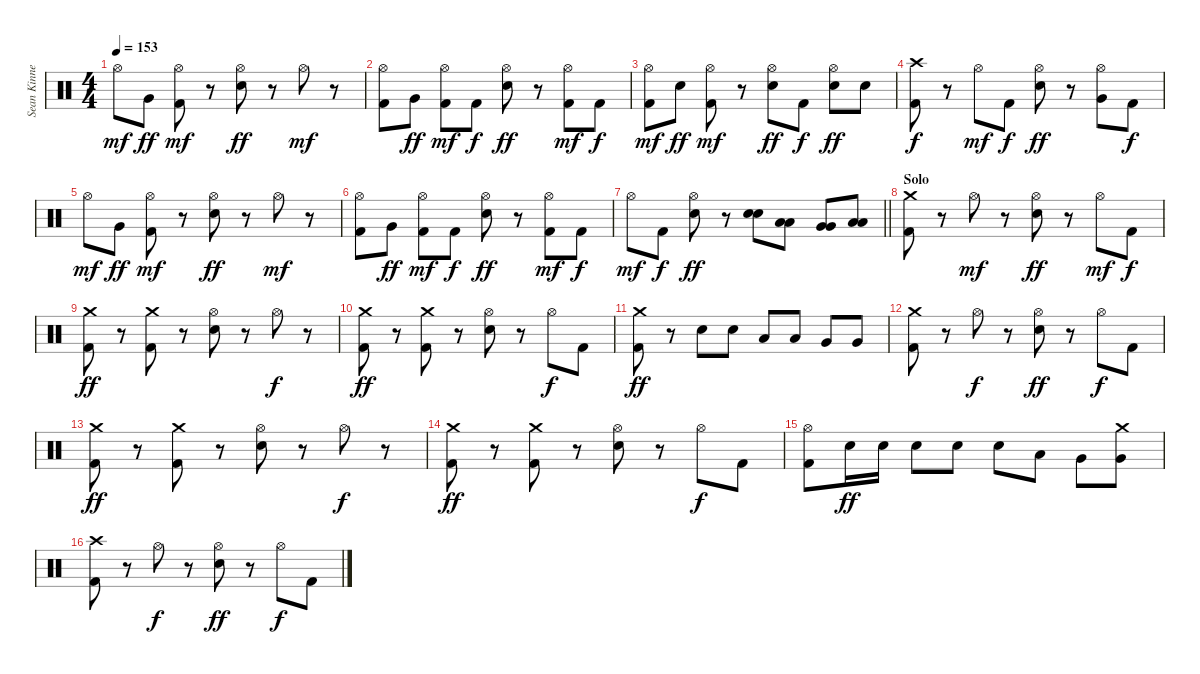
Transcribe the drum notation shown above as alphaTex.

\track ("Sean Kinney - Drums" "Sean Kinne") {instrument percussion}
\staff {score}
\articulation defaults
\ts (4 4)
\tempo 153
\clef neutral
\ks c "Hi-Hat (open)".8{dy mf} "Very Low Tom (hit)".8{dy ff}
("Hi-Hat (open)" "Kick (hit) 2").8{dy mf} r.8 ("Hi-Hat (open)" "Snare (hit) 2").8{dy ff} r.8 "Hi-Hat (open)".8{dy mf} r.8 |
("Hi-Hat (open)" "Kick (hit) 2").8 "Very Low Tom (hit)".8{dy ff} ("Hi-Hat (open)" "Kick (hit) 2").8{dy mf} "Kick (hit) 2".8{dy f} ("Hi-Hat (open)" "Snare (hit) 2").8{dy ff} r.8 ("Hi-Hat (open)" "Kick (hit) 2").8{dy mf} "Kick (hit) 2".8{dy f} |
("Hi-Hat (open)" "Kick (hit) 2").8{dy mf} "Snare (hit) 2".8{dy ff} ("Hi-Hat (open)" "Kick (hit) 2").8{dy mf} r.8 ("Hi-Hat (open)" "Snare (hit) 2").8{dy ff} "Kick (hit) 2".8{dy f} ("Hi-Hat (open)" "Snare (hit) 2").8{dy ff} "Snare (hit) 2".8 |
("Crash high (hit)" "Kick (hit) 2").8{dy f} r.8 "Hi-Hat (open)".8{dy mf} "Kick (hit) 2".8{dy f} ("Hi-Hat (open)" "Snare (hit) 2").8{dy ff} r.8 ("Hi-Hat (open)" "Very Low Tom (hit)").8 "Kick (hit) 2".8{dy f} |
"Hi-Hat (open)".8{dy mf} "Very Low Tom (hit)".8{dy ff} ("Hi-Hat (open)" "Kick (hit) 2").8{dy mf} r.8 ("Hi-Hat (open)" "Snare (hit) 2").8{dy ff} r.8 "Hi-Hat (open)".8{dy mf} r.8 |
("Hi-Hat (open)" "Kick (hit) 2").8 "Very Low Tom (hit)".8{dy ff} ("Hi-Hat (open)" "Kick (hit) 2").8{dy mf} "Kick (hit) 2".8{dy f} ("Hi-Hat (open)" "Snare (hit) 2").8{dy ff} r.8 ("Hi-Hat (open)" "Kick (hit) 2").8{dy mf} "Kick (hit) 2".8{dy f} |
\barLineRight lightlight "Hi-Hat (open)".8{dy mf} "Kick (hit) 2".8{dy f}
("Hi-Hat (open)" "Snare (hit) 2").8{dy ff} r.8 ("Snare (hit) 2" "Snare (hit) 2").8 ("Low Tom (hit)" "Low Tom (hit)").8 ("Very Low Tom (hit)" "Very Low Tom (hit)").8 ("Low Floor Tom (hit)" "Low Floor Tom (hit)").8 |
\section ("" "Solo")
("Crash medium (hit)" "Kick (hit) 2").8 r.8 "Hi-Hat (open)".8{dy mf} r.8 ("Hi-Hat (open)" "Snare (hit) 2").8{dy ff} r.8 "Hi-Hat (open)".8{dy mf} "Kick (hit) 2".8{dy f} |
("Crash medium (hit)" "Kick (hit) 2").8{dy ff} r.8 ("Crash medium (hit)" "Kick (hit) 2").8 r.8 ("Hi-Hat (open)" "Snare (hit) 2").8 r.8 "Hi-Hat (open)".8{dy f} r.8 |
("Crash medium (hit)" "Kick (hit) 2").8{dy ff} r.8 ("Crash medium (hit)" "Kick (hit) 2").8 r.8 ("Hi-Hat (open)" "Snare (hit) 2").8 r.8 "Hi-Hat (open)".8{dy f} "Kick (hit) 2".8 |
("Crash medium (hit)" "Kick (hit) 2").8{dy ff} r.8 "Snare (hit) 2".8 "Snare (hit) 2".8 "Low Tom (hit)".8 "Low Tom (hit)".8 "Very Low Tom (hit)".8 "Very Low Tom (hit)".8 |
("Crash medium (hit)" "Kick (hit) 2").8 r.8 "Hi-Hat (open)".8{dy f} r.8 ("Hi-Hat (open)" "Snare (hit) 2").8{dy ff} r.8 "Hi-Hat (open)".8{dy f} "Kick (hit) 2".8 |
("Crash medium (hit)" "Kick (hit) 2").8{dy ff} r.8 ("Crash medium (hit)" "Kick (hit) 2").8 r.8 ("Hi-Hat (open)" "Snare (hit) 2").8 r.8 "Hi-Hat (open)".8{dy f} r.8 |
("Crash medium (hit)" "Kick (hit) 2").8{dy ff} r.8 ("Crash medium (hit)" "Kick (hit) 2").8 r.8 ("Hi-Hat (open)" "Snare (hit) 2").8 r.8 "Hi-Hat (open)".8{dy f} "Kick (hit) 2".8 |
("Hi-Hat (open)" "Kick (hit) 2").8 "Snare (hit) 2".16{dy ff} "Snare (hit) 2".16 "Snare (hit) 2".8 "Snare (hit) 2".8 "Snare (hit) 2".8 "Low Tom (hit)".8 "Very Low Tom (hit)".8 ("Crash medium (hit)" "Very Low Tom (hit)").8 |
("Crash high (hit)" "Kick (hit) 2").8 r.8 "Hi-Hat (open)".8{dy f} r.8 ("Hi-Hat (open)" "Snare (hit) 2").8{dy ff} r.8 "Hi-Hat (open)".8{dy f} "Kick (hit) 2".8
